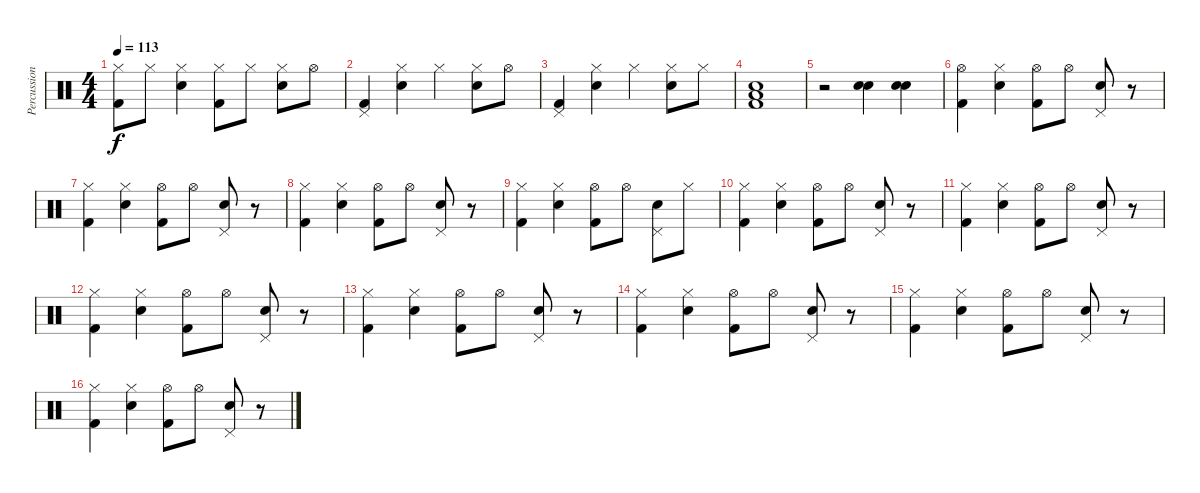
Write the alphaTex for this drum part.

\track ("Percussion" "Percussion") {instrument percussion bank 3}
\staff {score}
\articulation defaults
\ts (4 4)
\tempo 113
\clef neutral
\ks c
("Hi-Hat (closed)" "Kick (hit) 2").8{dy f} "Hi-Hat (closed)".8 ("Hi-Hat (closed)" "Snare (hit) 2").4 ("Hi-Hat (closed)" "Kick (hit) 2").8 "Hi-Hat (closed)".8 ("Hi-Hat (closed)" "Snare (hit) 2").8 "Hi-Hat (open)".8 |
("Pedal Hi-Hat (hit)" "Kick (hit) 2").4 ("Hi-Hat (closed)" "Snare (hit) 2").4 "Hi-Hat (closed)".4 ("Hi-Hat (closed)" "Snare (hit) 2").8 "Hi-Hat (open)".8 |
("Pedal Hi-Hat (hit)" "Kick (hit) 2").4 ("Hi-Hat (closed)" "Snare (hit) 2").4 "Hi-Hat (closed)".4 ("Hi-Hat (closed)" "Snare (hit) 2").8 "Hi-Hat (closed)".8 |
("Snare (hit) 2" "Low Tom (hit)" "Kick (hit) 2").1 |
r.2 ("Snare (hit) 2" "Snare (hit) 2").4 ("Snare (hit) 2" "Snare (hit) 2").4 |
("Hi-Hat (open)" "Kick (hit) 2").4 ("Hi-Hat (closed)" "Snare (hit) 2").4 ("Hi-Hat (open)" "Kick (hit) 2").8 "Hi-Hat (open)".8 ("Pedal Hi-Hat (hit)" "Snare (hit) 2").8 r.8 |
("Hi-Hat (closed)" "Kick (hit) 2").4 ("Hi-Hat (closed)" "Snare (hit) 2").4 ("Hi-Hat (open)" "Kick (hit) 2").8 "Hi-Hat (open)".8 ("Pedal Hi-Hat (hit)" "Snare (hit) 2").8 r.8 |
("Hi-Hat (closed)" "Kick (hit) 2").4 ("Hi-Hat (closed)" "Snare (hit) 2").4 ("Hi-Hat (open)" "Kick (hit) 2").8 "Hi-Hat (open)".8 ("Pedal Hi-Hat (hit)" "Snare (hit) 2").8 r.8 |
("Hi-Hat (closed)" "Kick (hit) 2").4 ("Hi-Hat (closed)" "Snare (hit) 2").4 ("Hi-Hat (open)" "Kick (hit) 2").8 "Hi-Hat (open)".8 ("Pedal Hi-Hat (hit)" "Snare (hit) 2").8 "Hi-Hat (closed)".8 |
("Hi-Hat (closed)" "Kick (hit) 2").4 ("Hi-Hat (closed)" "Snare (hit) 2").4 ("Hi-Hat (open)" "Kick (hit) 2").8 "Hi-Hat (open)".8 ("Pedal Hi-Hat (hit)" "Snare (hit) 2").8 r.8 |
("Hi-Hat (closed)" "Kick (hit) 2").4 ("Hi-Hat (closed)" "Snare (hit) 2").4 ("Hi-Hat (open)" "Kick (hit) 2").8 "Hi-Hat (open)".8 ("Pedal Hi-Hat (hit)" "Snare (hit) 2").8 r.8 |
("Hi-Hat (closed)" "Kick (hit) 2").4 ("Hi-Hat (closed)" "Snare (hit) 2").4 ("Hi-Hat (open)" "Kick (hit) 2").8 "Hi-Hat (open)".8 ("Pedal Hi-Hat (hit)" "Snare (hit) 2").8 r.8 |
("Hi-Hat (closed)" "Kick (hit) 2").4 ("Hi-Hat (closed)" "Snare (hit) 2").4 ("Hi-Hat (open)" "Kick (hit) 2").8 "Hi-Hat (open)".8 ("Pedal Hi-Hat (hit)" "Snare (hit) 2").8 r.8 |
("Hi-Hat (closed)" "Kick (hit) 2").4 ("Hi-Hat (closed)" "Snare (hit) 2").4 ("Hi-Hat (open)" "Kick (hit) 2").8 "Hi-Hat (open)".8 ("Pedal Hi-Hat (hit)" "Snare (hit) 2").8 r.8 |
("Hi-Hat (closed)" "Kick (hit) 2").4 ("Hi-Hat (closed)" "Snare (hit) 2").4 ("Hi-Hat (open)" "Kick (hit) 2").8 "Hi-Hat (open)".8 ("Pedal Hi-Hat (hit)" "Snare (hit) 2").8 r.8 |
("Hi-Hat (closed)" "Kick (hit) 2").4 ("Hi-Hat (closed)" "Snare (hit) 2").4 ("Hi-Hat (open)" "Kick (hit) 2").8 "Hi-Hat (open)".8 ("Pedal Hi-Hat (hit)" "Snare (hit) 2").8 r.8
